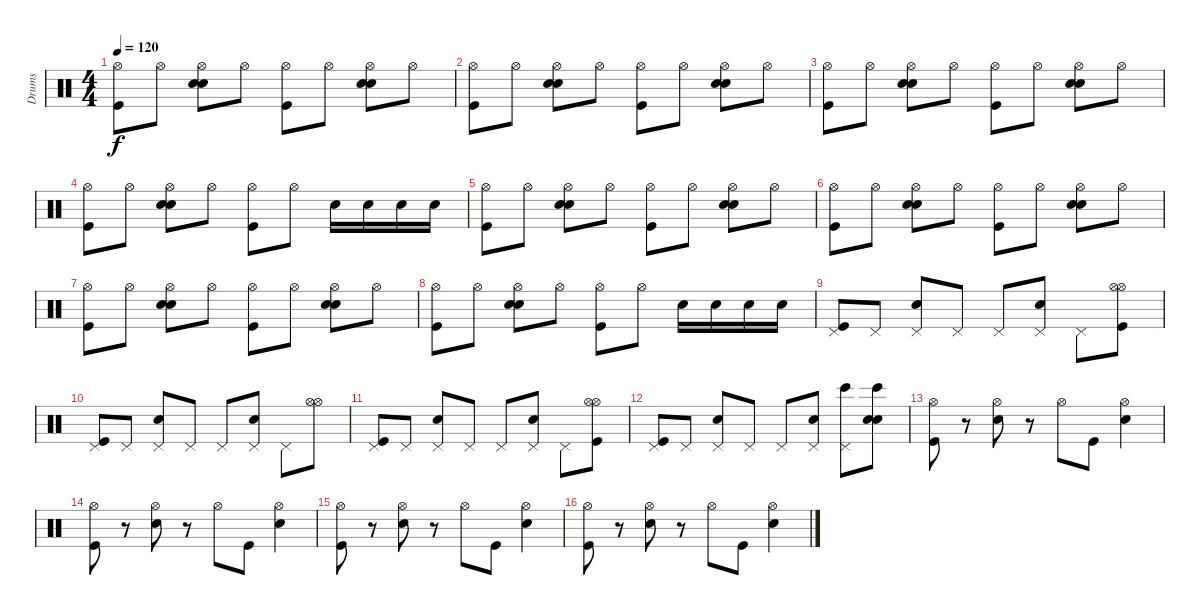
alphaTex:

\track ("Drums" "Drums") {instrument percussion}
\staff {score}
\articulation defaults
\ts (4 4)
\tempo 120
\clef neutral
\ks c
("Hi-Hat (open)" "Kick (hit)").8{dy f} "Hi-Hat (open)".8 ("Hi-Hat (open)" "Electric Snare (hit)" "Snare (hit) 2").8 "Hi-Hat (open)".8 ("Hi-Hat (open)" "Kick (hit)").8 "Hi-Hat (open)".8 ("Hi-Hat (open)" "Electric Snare (hit)" "Snare (hit) 2").8 "Hi-Hat (open)".8 |
("Hi-Hat (open)" "Kick (hit)").8 "Hi-Hat (open)".8 ("Hi-Hat (open)" "Electric Snare (hit)" "Snare (hit) 2").8 "Hi-Hat (open)".8 ("Hi-Hat (open)" "Kick (hit)").8 "Hi-Hat (open)".8 ("Hi-Hat (open)" "Electric Snare (hit)" "Snare (hit) 2").8 "Hi-Hat (open)".8 |
("Hi-Hat (open)" "Kick (hit)").8 "Hi-Hat (open)".8 ("Hi-Hat (open)" "Electric Snare (hit)" "Snare (hit) 2").8 "Hi-Hat (open)".8 ("Hi-Hat (open)" "Kick (hit)").8 "Hi-Hat (open)".8 ("Hi-Hat (open)" "Electric Snare (hit)" "Snare (hit) 2").8 "Hi-Hat (open)".8 |
("Hi-Hat (open)" "Kick (hit)").8 "Hi-Hat (open)".8 ("Hi-Hat (open)" "Electric Snare (hit)" "Snare (hit) 2").8 "Hi-Hat (open)".8 ("Hi-Hat (open)" "Kick (hit)").8 "Hi-Hat (open)".8 "Snare (hit) 2".16 "Snare (hit) 2".16 "Snare (hit) 2".16 "Snare (hit) 2".16 |
("Hi-Hat (open)" "Kick (hit)").8 "Hi-Hat (open)".8 ("Hi-Hat (open)" "Electric Snare (hit)" "Snare (hit) 2").8 "Hi-Hat (open)".8 ("Hi-Hat (open)" "Kick (hit)").8 "Hi-Hat (open)".8 ("Hi-Hat (open)" "Electric Snare (hit)" "Snare (hit) 2").8 "Hi-Hat (open)".8 |
("Hi-Hat (open)" "Kick (hit)").8 "Hi-Hat (open)".8 ("Hi-Hat (open)" "Electric Snare (hit)" "Snare (hit) 2").8 "Hi-Hat (open)".8 ("Hi-Hat (open)" "Kick (hit)").8 "Hi-Hat (open)".8 ("Hi-Hat (open)" "Electric Snare (hit)" "Snare (hit) 2").8 "Hi-Hat (open)".8 |
("Hi-Hat (open)" "Kick (hit)").8 "Hi-Hat (open)".8 ("Hi-Hat (open)" "Electric Snare (hit)" "Snare (hit) 2").8 "Hi-Hat (open)".8 ("Hi-Hat (open)" "Kick (hit)").8 "Hi-Hat (open)".8 ("Hi-Hat (open)" "Electric Snare (hit)" "Snare (hit) 2").8 "Hi-Hat (open)".8 |
("Hi-Hat (open)" "Kick (hit)").8 "Hi-Hat (open)".8 ("Hi-Hat (open)" "Electric Snare (hit)" "Snare (hit) 2").8 "Hi-Hat (open)".8 ("Hi-Hat (open)" "Kick (hit)").8 "Hi-Hat (open)".8 "Snare (hit) 2".16 "Snare (hit) 2".16 "Snare (hit) 2".16 "Snare (hit) 2".16 |
("Pedal Hi-Hat (hit)" "Kick (hit)").8{volume 13} "Pedal Hi-Hat (hit)".8 ("Pedal Hi-Hat (hit)" "Snare (hit) 2").8 "Pedal Hi-Hat (hit)".8 "Pedal Hi-Hat (hit)".8 ("Pedal Hi-Hat (hit)" "Snare (hit) 2").8 "Pedal Hi-Hat (hit)".8 ("Hi-Hat (open)" "Hi-Hat (open)" "Kick (hit)").8 |
("Pedal Hi-Hat (hit)" "Kick (hit)").8 "Pedal Hi-Hat (hit)".8 ("Pedal Hi-Hat (hit)" "Snare (hit) 2").8 "Pedal Hi-Hat (hit)".8 "Pedal Hi-Hat (hit)".8 ("Pedal Hi-Hat (hit)" "Snare (hit) 2").8 "Pedal Hi-Hat (hit)".8 ("Hi-Hat (open)" "Hi-Hat (open)").8 |
("Pedal Hi-Hat (hit)" "Kick (hit)").8{volume 13} "Pedal Hi-Hat (hit)".8 ("Pedal Hi-Hat (hit)" "Snare (hit) 2").8 "Pedal Hi-Hat (hit)".8 "Pedal Hi-Hat (hit)".8 ("Pedal Hi-Hat (hit)" "Snare (hit) 2").8 "Pedal Hi-Hat (hit)".8 ("Hi-Hat (open)" "Hi-Hat (open)" "Kick (hit)").8 |
("Pedal Hi-Hat (hit)" "Kick (hit)").8 "Pedal Hi-Hat (hit)".8 ("Pedal Hi-Hat (hit)" "Snare (hit) 2").8 "Pedal Hi-Hat (hit)".8 "Pedal Hi-Hat (hit)".8 ("Pedal Hi-Hat (hit)" "Snare (hit) 2").8 ("Pedal Hi-Hat (hit)" "Bongo High (hit)").8 ("Snare (hit) 2" "Electric Snare (hit)" "Bongo High (hit)").8{volume 16} |
("Hi-Hat (open)" "Kick (hit)").8 r.8 ("Hi-Hat (open)" "Snare (hit) 2").8 r.8 "Hi-Hat (open)".8 "Kick (hit)".8 ("Hi-Hat (open)" "Snare (hit) 2").4 |
("Hi-Hat (open)" "Kick (hit)").8 r.8 ("Hi-Hat (open)" "Snare (hit) 2").8 r.8 "Hi-Hat (open)".8 "Kick (hit)".8 ("Hi-Hat (open)" "Snare (hit) 2").4 |
("Hi-Hat (open)" "Kick (hit)").8 r.8 ("Hi-Hat (open)" "Snare (hit) 2").8 r.8 "Hi-Hat (open)".8 "Kick (hit)".8 ("Hi-Hat (open)" "Snare (hit) 2").4 |
("Hi-Hat (open)" "Kick (hit)").8 r.8 ("Hi-Hat (open)" "Snare (hit) 2").8 r.8 "Hi-Hat (open)".8 "Kick (hit)".8 ("Hi-Hat (open)" "Snare (hit) 2").4
